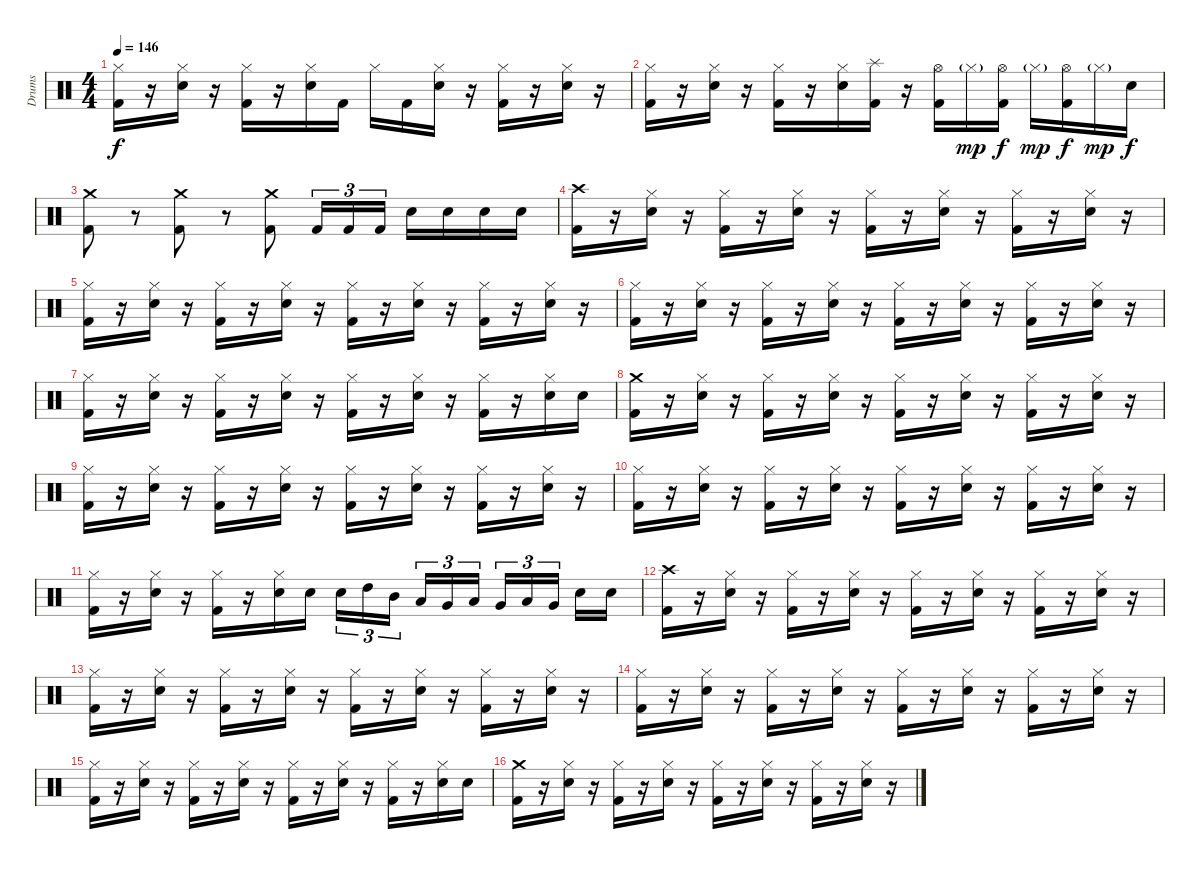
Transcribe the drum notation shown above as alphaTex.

\track ("Drums" "Drums") {instrument percussion}
\staff {score}
\articulation defaults
\ts (4 4)
\tempo 146
\clef neutral
\ks c
("Hi-Hat (closed)" "Kick (hit) 2").16{dy f} r.16 ("Hi-Hat (closed)" "Snare (hit) 2").16 r.16 ("Hi-Hat (closed)" "Kick (hit) 2").16 r.16 ("Hi-Hat (closed)" "Snare (hit) 2").16 "Kick (hit) 2".16 "Hi-Hat (closed)".16 "Kick (hit) 2".16 ("Hi-Hat (closed)" "Snare (hit) 2").16 r.16 ("Hi-Hat (closed)" "Kick (hit) 2").16 r.16 ("Hi-Hat (closed)" "Snare (hit) 2").16 r.16 |
("Hi-Hat (closed)" "Kick (hit) 2").16 r.16 ("Hi-Hat (closed)" "Snare (hit) 2").16 r.16 ("Hi-Hat (closed)" "Kick (hit) 2").16 r.16 ("Hi-Hat (closed)" "Snare (hit) 2").16 ("Splash (hit)" "Kick (hit) 2").16 r.16 ("Hi-Hat (open)" "Kick (hit) 2").16 "Hi-Hat (closed)"{g}.16{dy mp} ("Hi-Hat (open)" "Kick (hit) 2").16{dy f} "Hi-Hat (closed)"{g}.16{dy mp} ("Hi-Hat (open)" "Kick (hit) 2").16{dy f} "Hi-Hat (closed)"{g}.16{dy mp} "Snare (hit) 2".16{dy f} |
("Crash medium (hit)" "Kick (hit) 2").8 r.8 ("Crash medium (hit)" "Kick (hit) 2").8 r.8 ("Crash medium (hit)" "Kick (hit) 2").8 "Kick (hit) 2".16{tu (3 2)} "Kick (hit) 2".16{tu (3 2)} "Kick (hit) 2".16{tu (3 2)} "Snare (hit) 2".16 "Snare (hit) 2".16 "Snare (hit) 2".16 "Snare (hit) 2".16 |
("Crash high (hit)" "Kick (hit) 2").16 r.16 ("Hi-Hat (closed)" "Snare (hit) 2").16 r.16 ("Hi-Hat (closed)" "Kick (hit) 2").16 r.16 ("Hi-Hat (closed)" "Snare (hit) 2").16 r.16 ("Hi-Hat (closed)" "Kick (hit) 2").16 r.16 ("Hi-Hat (closed)" "Snare (hit) 2").16 r.16 ("Hi-Hat (closed)" "Kick (hit) 2").16 r.16 ("Hi-Hat (closed)" "Snare (hit) 2").16 r.16 |
("Hi-Hat (closed)" "Kick (hit) 2").16 r.16 ("Hi-Hat (closed)" "Snare (hit) 2").16 r.16 ("Hi-Hat (closed)" "Kick (hit) 2").16 r.16 ("Hi-Hat (closed)" "Snare (hit) 2").16 r.16 ("Hi-Hat (closed)" "Kick (hit) 2").16 r.16 ("Hi-Hat (closed)" "Snare (hit) 2").16 r.16 ("Hi-Hat (closed)" "Kick (hit) 2").16 r.16 ("Hi-Hat (closed)" "Snare (hit) 2").16 r.16 |
("Hi-Hat (closed)" "Kick (hit) 2").16 r.16 ("Hi-Hat (closed)" "Snare (hit) 2").16 r.16 ("Hi-Hat (closed)" "Kick (hit) 2").16 r.16 ("Hi-Hat (closed)" "Snare (hit) 2").16 r.16 ("Hi-Hat (closed)" "Kick (hit) 2").16 r.16 ("Hi-Hat (closed)" "Snare (hit) 2").16 r.16 ("Hi-Hat (closed)" "Kick (hit) 2").16 r.16 ("Hi-Hat (closed)" "Snare (hit) 2").16 r.16 |
("Hi-Hat (closed)" "Kick (hit) 2").16 r.16 ("Hi-Hat (closed)" "Snare (hit) 2").16 r.16 ("Hi-Hat (closed)" "Kick (hit) 2").16 r.16 ("Hi-Hat (closed)" "Snare (hit) 2").16 r.16 ("Hi-Hat (closed)" "Kick (hit) 2").16 r.16 ("Hi-Hat (closed)" "Snare (hit) 2").16 r.16 ("Hi-Hat (closed)" "Kick (hit) 2").16 r.16 ("Hi-Hat (closed)" "Snare (hit) 2").16 "Snare (hit) 2".16 |
("Crash medium (hit)" "Kick (hit) 2").16 r.16 ("Hi-Hat (closed)" "Snare (hit) 2").16 r.16 ("Hi-Hat (closed)" "Kick (hit) 2").16 r.16 ("Hi-Hat (closed)" "Snare (hit) 2").16 r.16 ("Hi-Hat (closed)" "Kick (hit) 2").16 r.16 ("Hi-Hat (closed)" "Snare (hit) 2").16 r.16 ("Hi-Hat (closed)" "Kick (hit) 2").16 r.16 ("Hi-Hat (closed)" "Snare (hit) 2").16 r.16 |
("Hi-Hat (closed)" "Kick (hit) 2").16 r.16 ("Hi-Hat (closed)" "Snare (hit) 2").16 r.16 ("Hi-Hat (closed)" "Kick (hit) 2").16 r.16 ("Hi-Hat (closed)" "Snare (hit) 2").16 r.16 ("Hi-Hat (closed)" "Kick (hit) 2").16 r.16 ("Hi-Hat (closed)" "Snare (hit) 2").16 r.16 ("Hi-Hat (closed)" "Kick (hit) 2").16 r.16 ("Hi-Hat (closed)" "Snare (hit) 2").16 r.16 |
("Hi-Hat (closed)" "Kick (hit) 2").16 r.16 ("Hi-Hat (closed)" "Snare (hit) 2").16 r.16 ("Hi-Hat (closed)" "Kick (hit) 2").16 r.16 ("Hi-Hat (closed)" "Snare (hit) 2").16 r.16 ("Hi-Hat (closed)" "Kick (hit) 2").16 r.16 ("Hi-Hat (closed)" "Snare (hit) 2").16 r.16 ("Hi-Hat (closed)" "Kick (hit) 2").16 r.16 ("Hi-Hat (closed)" "Snare (hit) 2").16 r.16 |
("Hi-Hat (closed)" "Kick (hit) 2").16 r.16 ("Hi-Hat (closed)" "Snare (hit) 2").16 r.16 ("Hi-Hat (closed)" "Kick (hit) 2").16 r.16 ("Hi-Hat (closed)" "Snare (hit) 2").16 "Snare (hit) 2".16 "Snare (hit) 2".16{tu (3 2)} "High Tom (hit)".16{tu (3 2)} "Mid Tom (hit)".16{tu (3 2) beam splitsecondary} "Low Tom (hit)".16{tu (3 2)} "Very Low Tom (hit)".16{tu (3 2)} "Low Tom (hit)".16{tu (3 2)} "Very Low Tom (hit)".16{tu (3 2)} "Low Floor Tom (hit)".16{tu (3 2)} "Very Low Tom (hit)".16{tu (3 2) beam splitsecondary} "Snare (hit) 2".16 "Snare (hit) 2".16 |
("Crash high (hit)" "Kick (hit) 2").16 r.16 ("Hi-Hat (closed)" "Snare (hit) 2").16 r.16 ("Hi-Hat (closed)" "Kick (hit) 2").16 r.16 ("Hi-Hat (closed)" "Snare (hit) 2").16 r.16 ("Hi-Hat (closed)" "Kick (hit) 2").16 r.16 ("Hi-Hat (closed)" "Snare (hit) 2").16 r.16 ("Hi-Hat (closed)" "Kick (hit) 2").16 r.16 ("Hi-Hat (closed)" "Snare (hit) 2").16 r.16 |
("Hi-Hat (closed)" "Kick (hit) 2").16 r.16 ("Hi-Hat (closed)" "Snare (hit) 2").16 r.16 ("Hi-Hat (closed)" "Kick (hit) 2").16 r.16 ("Hi-Hat (closed)" "Snare (hit) 2").16 r.16 ("Hi-Hat (closed)" "Kick (hit) 2").16 r.16 ("Hi-Hat (closed)" "Snare (hit) 2").16 r.16 ("Hi-Hat (closed)" "Kick (hit) 2").16 r.16 ("Hi-Hat (closed)" "Snare (hit) 2").16 r.16 |
("Hi-Hat (closed)" "Kick (hit) 2").16 r.16 ("Hi-Hat (closed)" "Snare (hit) 2").16 r.16 ("Hi-Hat (closed)" "Kick (hit) 2").16 r.16 ("Hi-Hat (closed)" "Snare (hit) 2").16 r.16 ("Hi-Hat (closed)" "Kick (hit) 2").16 r.16 ("Hi-Hat (closed)" "Snare (hit) 2").16 r.16 ("Hi-Hat (closed)" "Kick (hit) 2").16 r.16 ("Hi-Hat (closed)" "Snare (hit) 2").16 r.16 |
("Hi-Hat (closed)" "Kick (hit) 2").16 r.16 ("Hi-Hat (closed)" "Snare (hit) 2").16 r.16 ("Hi-Hat (closed)" "Kick (hit) 2").16 r.16 ("Hi-Hat (closed)" "Snare (hit) 2").16 r.16 ("Hi-Hat (closed)" "Kick (hit) 2").16 r.16 ("Hi-Hat (closed)" "Snare (hit) 2").16 r.16 ("Hi-Hat (closed)" "Kick (hit) 2").16 r.16 ("Hi-Hat (closed)" "Snare (hit) 2").16 "Snare (hit) 2".16 |
("Crash medium (hit)" "Kick (hit) 2").16 r.16 ("Hi-Hat (closed)" "Snare (hit) 2").16 r.16 ("Hi-Hat (closed)" "Kick (hit) 2").16 r.16 ("Hi-Hat (closed)" "Snare (hit) 2").16 r.16 ("Hi-Hat (closed)" "Kick (hit) 2").16 r.16 ("Hi-Hat (closed)" "Snare (hit) 2").16 r.16 ("Hi-Hat (closed)" "Kick (hit) 2").16 r.16 ("Hi-Hat (closed)" "Snare (hit) 2").16 r.16
